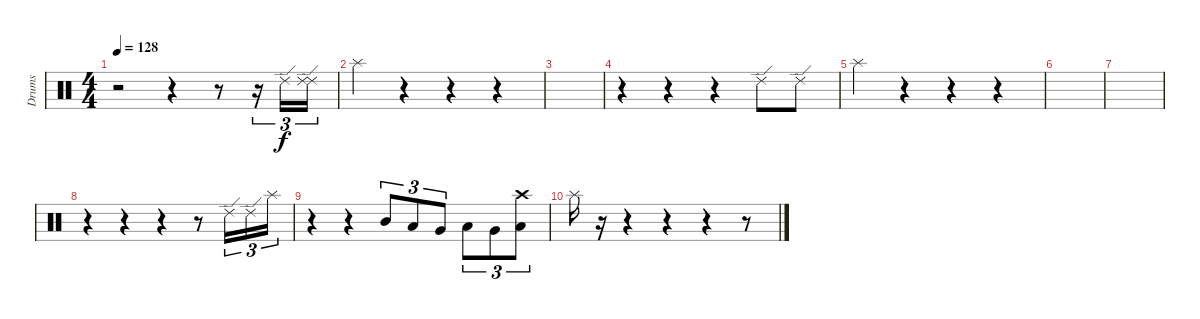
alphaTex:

\track ("Drums" "Drums") {instrument percussion}
\staff {score}
\articulation defaults
\ts (4 4)
\tempo 128
\clef neutral
\ks c
r.2{dy f} r.4 r.8 r.16{tu (3 2)} "Ride (edge) 2".16{tu (3 2)} ("Ride (edge) 2" "Ride (edge) 2").16{tu (3 2)} |
"Splash (hit)".4 r.4 r.4 r.4 |
|
r.4 r.4 r.4 "Ride (edge) 2".8 "Ride (edge) 2".8 |
"Splash (hit)".4 r.4 r.4 r.4 |
|
|
r.4 r.4 r.4 r.8 "Ride (edge) 2".16{tu (3 2)} "Ride (edge) 2".16{tu (3 2)} "Splash (hit)".16{tu (3 2)} |
r.4 r.4 "Mid Tom (hit)".8{tu (3 2)} "Low Tom (hit)".8{tu (3 2)} "Very Low Tom (hit)".8{tu (3 2)} "Low Tom (hit)".8{tu (3 2)} "Very Low Tom (hit)".8{tu (3 2)} ("Low Floor Tom (hit)" "Crash high (hit)").8{tu (3 2)} |
"Splash (hit)".16 r.16 r.4 r.4 r.4 r.8
